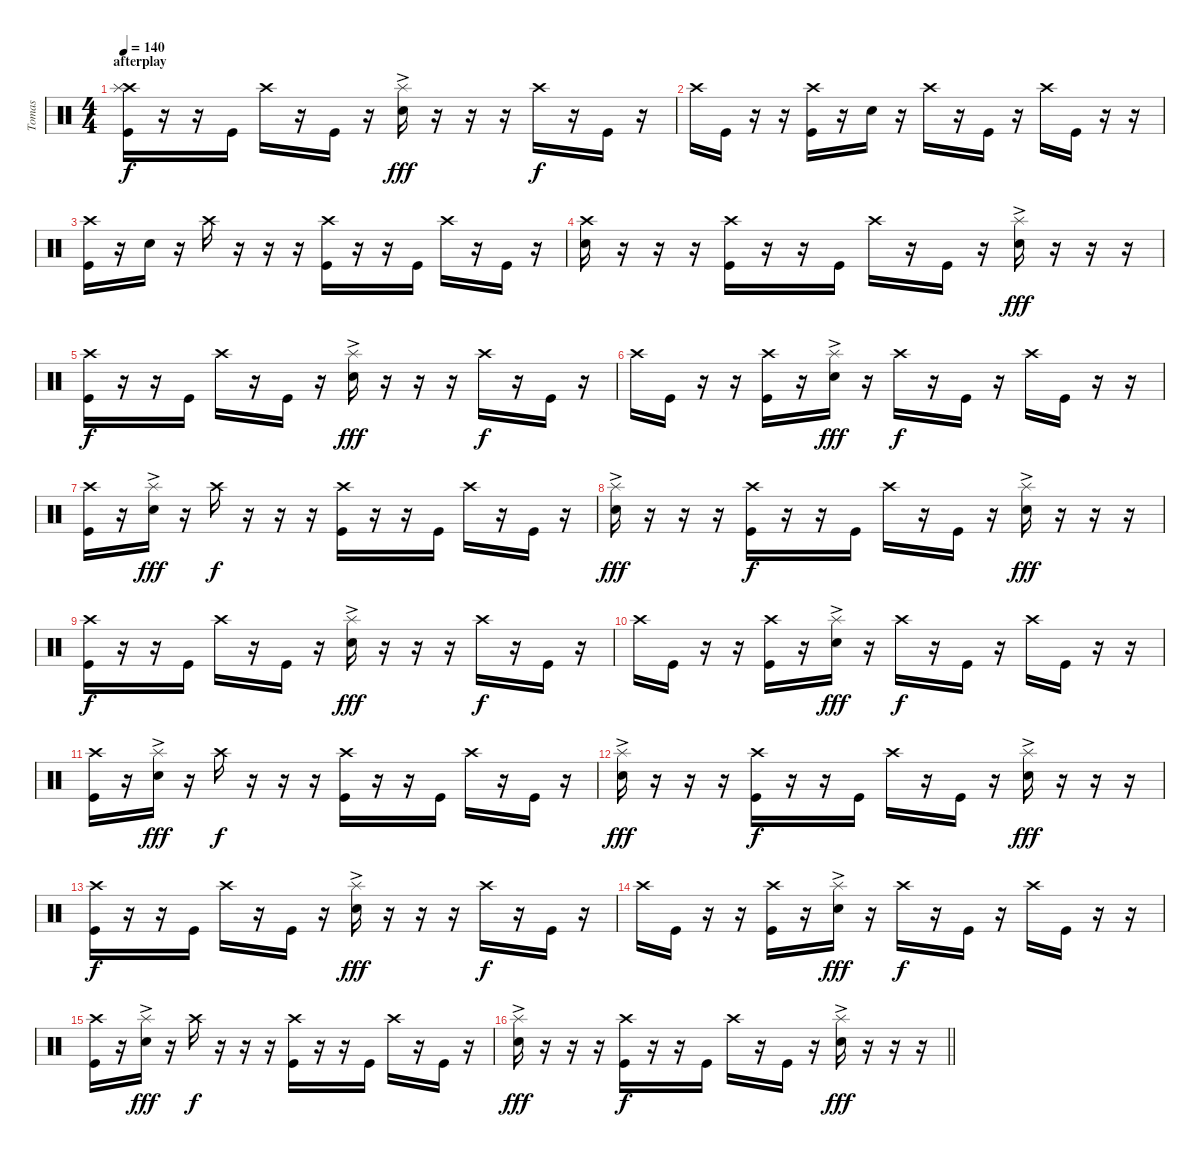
\track ("Tomas" "Tomas") {instrument percussion}
\staff {score}
\articulation defaults
\ts (4 4)
\section ("" "afterplay")
\tempo 140
\clef neutral
\ks c
("Crash high (hit)" "Splash (hit)" "Kick (hit)").16{dy f} r.16 r.16 "Kick (hit)".16 "Crash high (hit)".16 r.16 "Kick (hit)".16 r.16 ("Splash (hit)"{ac} "Electric Snare (hit)").16{dy fff} r.16 r.16 r.16 "Crash high (hit)".16{dy f} r.16 "Kick (hit)".16 r.16 |
"Crash high (hit)".16 "Kick (hit)".16 r.16 r.16 ("Crash high (hit)" "Kick (hit)").16 r.16 "Electric Snare (hit)".16 r.16 "Crash high (hit)".16 r.16 "Kick (hit)".16 r.16 "Crash high (hit)".16 "Kick (hit)".16 r.16 r.16 |
("Crash high (hit)" "Kick (hit)").16 r.16 "Electric Snare (hit)".16 r.16 "Crash high (hit)".16 r.16 r.16 r.16 ("Crash high (hit)" "Kick (hit)").16 r.16 r.16 "Kick (hit)".16 "Crash high (hit)".16 r.16 "Kick (hit)".16 r.16 |
("Crash high (hit)" "Electric Snare (hit)").16 r.16 r.16 r.16 ("Crash high (hit)" "Kick (hit)").16 r.16 r.16 "Kick (hit)".16 "Crash high (hit)".16 r.16 "Kick (hit)".16 r.16 ("Splash (hit)"{ac} "Electric Snare (hit)").16{dy fff} r.16 r.16 r.16 |
("Crash high (hit)" "Kick (hit)").16{dy f} r.16 r.16 "Kick (hit)".16 "Crash high (hit)".16 r.16 "Kick (hit)".16 r.16 ("Splash (hit)"{ac} "Electric Snare (hit)").16{dy fff} r.16 r.16 r.16 "Crash high (hit)".16{dy f} r.16 "Kick (hit)".16 r.16 |
"Crash high (hit)".16 "Kick (hit)".16 r.16 r.16 ("Crash high (hit)" "Kick (hit)").16 r.16 ("Splash (hit)"{ac} "Electric Snare (hit)").16{dy fff} r.16 "Crash high (hit)".16{dy f} r.16 "Kick (hit)".16 r.16 "Crash high (hit)".16 "Kick (hit)".16 r.16 r.16 |
("Crash high (hit)" "Kick (hit)").16 r.16 ("Splash (hit)"{ac} "Electric Snare (hit)").16{dy fff} r.16 "Crash high (hit)".16{dy f} r.16 r.16 r.16 ("Crash high (hit)" "Kick (hit)").16 r.16 r.16 "Kick (hit)".16 "Crash high (hit)".16 r.16 "Kick (hit)".16 r.16 |
("Splash (hit)"{ac} "Electric Snare (hit)").16{dy fff} r.16 r.16 r.16 ("Crash high (hit)" "Kick (hit)").16{dy f} r.16 r.16 "Kick (hit)".16 "Crash high (hit)".16 r.16 "Kick (hit)".16 r.16 ("Splash (hit)"{ac} "Electric Snare (hit)").16{dy fff} r.16 r.16 r.16 |
("Crash high (hit)" "Kick (hit)").16{dy f} r.16 r.16 "Kick (hit)".16 "Crash high (hit)".16 r.16 "Kick (hit)".16 r.16 ("Splash (hit)"{ac} "Electric Snare (hit)").16{dy fff} r.16 r.16 r.16 "Crash high (hit)".16{dy f} r.16 "Kick (hit)".16 r.16 |
"Crash high (hit)".16 "Kick (hit)".16 r.16 r.16 ("Crash high (hit)" "Kick (hit)").16 r.16 ("Splash (hit)"{ac} "Electric Snare (hit)").16{dy fff} r.16 "Crash high (hit)".16{dy f} r.16 "Kick (hit)".16 r.16 "Crash high (hit)".16 "Kick (hit)".16 r.16 r.16 |
("Crash high (hit)" "Kick (hit)").16 r.16 ("Splash (hit)"{ac} "Electric Snare (hit)").16{dy fff} r.16 "Crash high (hit)".16{dy f} r.16 r.16 r.16 ("Crash high (hit)" "Kick (hit)").16 r.16 r.16 "Kick (hit)".16 "Crash high (hit)".16 r.16 "Kick (hit)".16 r.16 |
("Splash (hit)"{ac} "Electric Snare (hit)").16{dy fff} r.16 r.16 r.16 ("Crash high (hit)" "Kick (hit)").16{dy f} r.16 r.16 "Kick (hit)".16 "Crash high (hit)".16 r.16 "Kick (hit)".16 r.16 ("Splash (hit)"{ac} "Electric Snare (hit)").16{dy fff} r.16 r.16 r.16 |
("Crash high (hit)" "Kick (hit)").16{dy f} r.16 r.16 "Kick (hit)".16 "Crash high (hit)".16 r.16 "Kick (hit)".16 r.16 ("Splash (hit)"{ac} "Electric Snare (hit)").16{dy fff} r.16 r.16 r.16 "Crash high (hit)".16{dy f} r.16 "Kick (hit)".16 r.16 |
"Crash high (hit)".16 "Kick (hit)".16 r.16 r.16 ("Crash high (hit)" "Kick (hit)").16 r.16 ("Splash (hit)"{ac} "Electric Snare (hit)").16{dy fff} r.16 "Crash high (hit)".16{dy f} r.16 "Kick (hit)".16 r.16 "Crash high (hit)".16 "Kick (hit)".16 r.16 r.16 |
("Crash high (hit)" "Kick (hit)").16 r.16 ("Splash (hit)"{ac} "Electric Snare (hit)").16{dy fff} r.16 "Crash high (hit)".16{dy f} r.16 r.16 r.16 ("Crash high (hit)" "Kick (hit)").16 r.16 r.16 "Kick (hit)".16 "Crash high (hit)".16 r.16 "Kick (hit)".16 r.16 |
\barLineRight lightlight
("Splash (hit)"{ac} "Electric Snare (hit)").16{dy fff} r.16 r.16 r.16 ("Crash high (hit)" "Kick (hit)").16{dy f} r.16 r.16 "Kick (hit)".16 "Crash high (hit)".16 r.16 "Kick (hit)".16 r.16 ("Splash (hit)"{ac} "Electric Snare (hit)").16{dy fff} r.16 r.16 r.16
